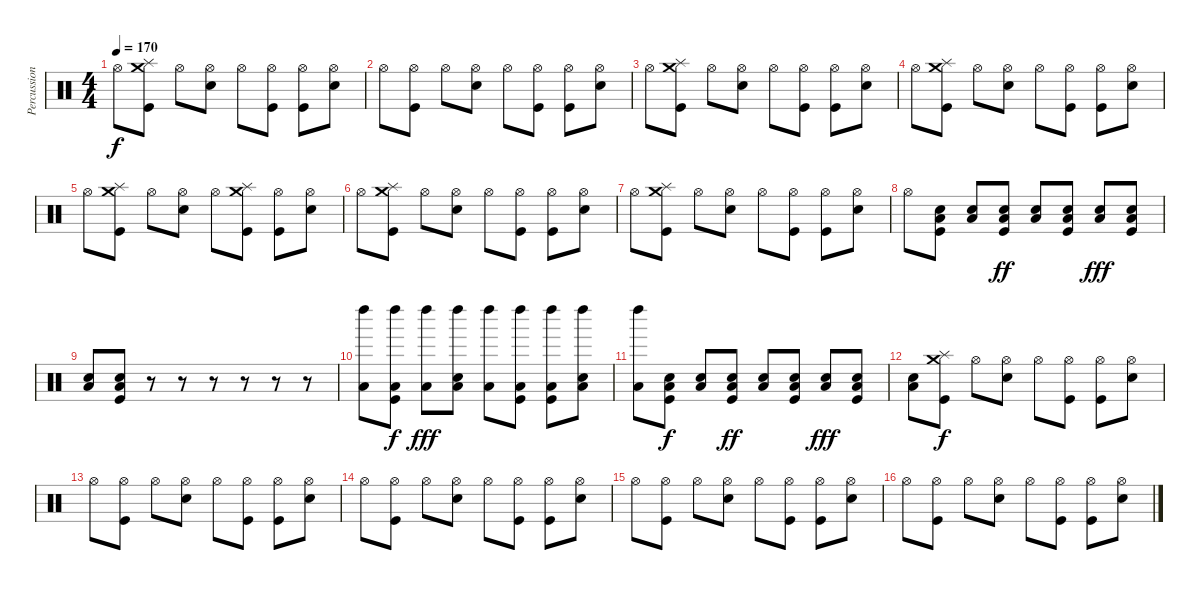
\track ("Percussion" "Percussion") {instrument percussion}
\staff {score}
\articulation defaults
\ts (4 4)
\tempo 170
\clef neutral
\ks c "Hi-Hat (open)".8{dy f}
("Crash medium (hit)" "Splash (hit)" "Kick (hit)").8 "Hi-Hat (open)".8 ("Hi-Hat (open)" "Electric Snare (hit)").8 "Hi-Hat (open)".8 ("Hi-Hat (open)" "Kick (hit)").8 ("Hi-Hat (open)" "Kick (hit)").8 ("Hi-Hat (open)" "Electric Snare (hit)").8 |
"Hi-Hat (open)".8 ("Hi-Hat (open)" "Kick (hit)").8 "Hi-Hat (open)".8 ("Hi-Hat (open)" "Electric Snare (hit)").8 "Hi-Hat (open)".8 ("Hi-Hat (open)" "Kick (hit)").8 ("Hi-Hat (open)" "Kick (hit)").8 ("Hi-Hat (open)" "Electric Snare (hit)").8 |
"Hi-Hat (open)".8 ("Crash medium (hit)" "Splash (hit)" "Kick (hit)").8 "Hi-Hat (open)".8 ("Hi-Hat (open)" "Electric Snare (hit)").8 "Hi-Hat (open)".8 ("Hi-Hat (open)" "Kick (hit)").8 ("Hi-Hat (open)" "Kick (hit)").8 ("Hi-Hat (open)" "Electric Snare (hit)").8 |
"Hi-Hat (open)".8 ("Crash medium (hit)" "Splash (hit)" "Kick (hit)").8 "Hi-Hat (open)".8 ("Hi-Hat (open)" "Electric Snare (hit)").8 "Hi-Hat (open)".8 ("Hi-Hat (open)" "Kick (hit)").8 ("Hi-Hat (open)" "Kick (hit)").8 ("Hi-Hat (open)" "Electric Snare (hit)").8 |
"Hi-Hat (open)".8 ("Crash medium (hit)" "Splash (hit)" "Kick (hit)").8 "Hi-Hat (open)".8 ("Hi-Hat (open)" "Electric Snare (hit)").8 "Hi-Hat (open)".8 ("Crash medium (hit)" "Splash (hit)" "Kick (hit)").8 ("Hi-Hat (open)" "Kick (hit)").8 ("Hi-Hat (open)" "Electric Snare (hit)").8 |
"Hi-Hat (open)".8 ("Crash medium (hit)" "Splash (hit)" "Kick (hit)").8 "Hi-Hat (open)".8 ("Hi-Hat (open)" "Electric Snare (hit)").8 "Hi-Hat (open)".8 ("Hi-Hat (open)" "Kick (hit)").8 ("Hi-Hat (open)" "Kick (hit)").8 ("Hi-Hat (open)" "Electric Snare (hit)").8 |
"Hi-Hat (open)".8 ("Splash (hit)" "Crash medium (hit)" "Kick (hit)").8 "Hi-Hat (open)".8 ("Hi-Hat (open)" "Electric Snare (hit)").8 "Hi-Hat (open)".8 ("Hi-Hat (open)" "Kick (hit)").8 ("Hi-Hat (open)" "Kick (hit)").8 ("Hi-Hat (open)" "Electric Snare (hit)").8 |
"Hi-Hat (open)".8 ("Low Floor Tom (hit)" "Electric Snare (hit)" "Kick (hit)").8 ("Low Floor Tom (hit)" "Electric Snare (hit)").8 ("Low Floor Tom (hit)" "Electric Snare (hit)" "Kick (hit)").8{dy ff} ("Low Floor Tom (hit)" "Electric Snare (hit)").8 ("Low Floor Tom (hit)" "Electric Snare (hit)" "Kick (hit)").8 ("Low Floor Tom (hit)" "Electric Snare (hit)").8{dy fff} ("Low Floor Tom (hit)" "Electric Snare (hit)" "Kick (hit)").8 |
("Low Floor Tom (hit)" "Electric Snare (hit)").8 ("Low Floor Tom (hit)" "Electric Snare (hit)" "Kick (hit)").8 r.8 r.8 r.8 r.8 r.8 r.8 |
("Left Maraca (hit)" "Low Floor Tom (hit)").8 ("Left Maraca (hit)" "Low Floor Tom (hit)" "Kick (hit)").8{dy f} ("Left Maraca (hit)" "Low Floor Tom (hit)").8{dy fff} ("Left Maraca (hit)" "Low Floor Tom (hit)" "Electric Snare (hit)").8 ("Left Maraca (hit)" "Low Floor Tom (hit)").8 ("Left Maraca (hit)" "Low Floor Tom (hit)" "Kick (hit)").8 ("Left Maraca (hit)" "Low Floor Tom (hit)" "Kick (hit)").8 ("Left Maraca (hit)" "Low Floor Tom (hit)" "Electric Snare (hit)").8 |
("Left Maraca (hit)" "Low Floor Tom (hit)").8 ("Low Floor Tom (hit)" "Electric Snare (hit)" "Kick (hit)").8{dy f} ("Low Floor Tom (hit)" "Electric Snare (hit)").8 ("Low Floor Tom (hit)" "Electric Snare (hit)" "Kick (hit)").8{dy ff} ("Low Floor Tom (hit)" "Electric Snare (hit)").8 ("Low Floor Tom (hit)" "Electric Snare (hit)" "Kick (hit)").8 ("Low Floor Tom (hit)" "Electric Snare (hit)").8{dy fff} ("Low Floor Tom (hit)" "Electric Snare (hit)" "Kick (hit)").8 |
("Low Floor Tom (hit)" "Electric Snare (hit)").8 ("Crash medium (hit)" "Splash (hit)" "Kick (hit)").8{dy f} "Hi-Hat (open)".8 ("Hi-Hat (open)" "Electric Snare (hit)").8 "Hi-Hat (open)".8 ("Hi-Hat (open)" "Kick (hit)").8 ("Hi-Hat (open)" "Kick (hit)").8 ("Hi-Hat (open)" "Electric Snare (hit)").8 |
"Hi-Hat (open)".8 ("Hi-Hat (open)" "Kick (hit)").8 "Hi-Hat (open)".8 ("Hi-Hat (open)" "Electric Snare (hit)").8 "Hi-Hat (open)".8 ("Hi-Hat (open)" "Kick (hit)").8 ("Hi-Hat (open)" "Kick (hit)").8 ("Hi-Hat (open)" "Electric Snare (hit)").8 |
"Hi-Hat (open)".8 ("Hi-Hat (open)" "Kick (hit)").8 "Hi-Hat (open)".8 ("Hi-Hat (open)" "Electric Snare (hit)").8 "Hi-Hat (open)".8 ("Hi-Hat (open)" "Kick (hit)").8 ("Hi-Hat (open)" "Kick (hit)").8 ("Hi-Hat (open)" "Electric Snare (hit)").8 |
"Hi-Hat (open)".8 ("Hi-Hat (open)" "Kick (hit)").8 "Hi-Hat (open)".8 ("Hi-Hat (open)" "Electric Snare (hit)").8 "Hi-Hat (open)".8 ("Hi-Hat (open)" "Kick (hit)").8 ("Hi-Hat (open)" "Kick (hit)").8 ("Hi-Hat (open)" "Electric Snare (hit)").8 |
"Hi-Hat (open)".8 ("Hi-Hat (open)" "Kick (hit)").8 "Hi-Hat (open)".8 ("Hi-Hat (open)" "Electric Snare (hit)").8 "Hi-Hat (open)".8 ("Hi-Hat (open)" "Kick (hit)").8 ("Hi-Hat (open)" "Kick (hit)").8 ("Hi-Hat (open)" "Electric Snare (hit)").8
